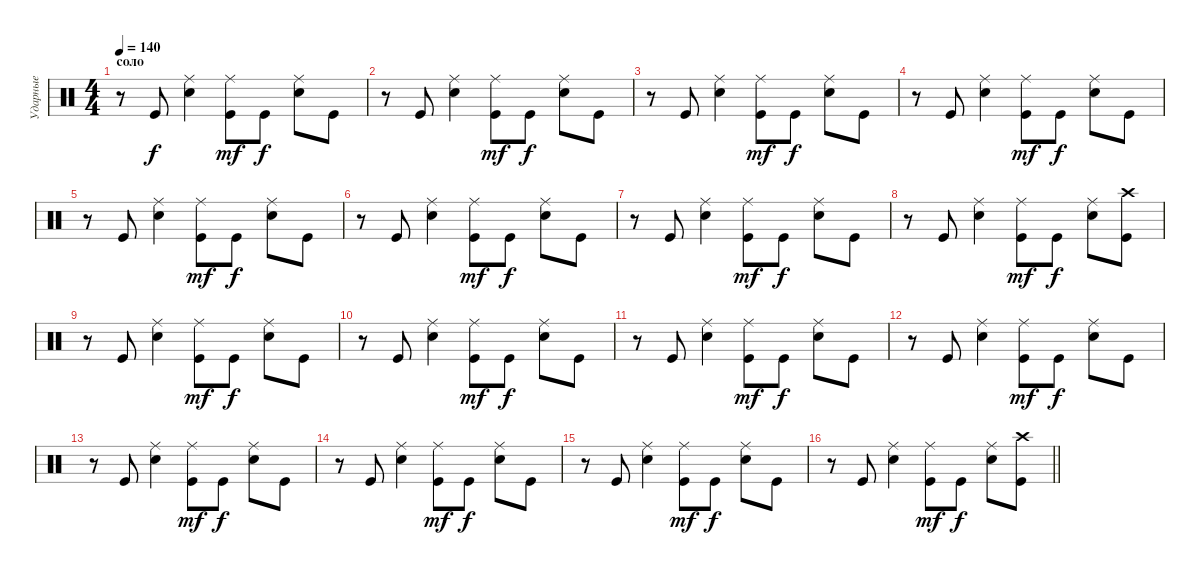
\track ("Ударные" "Ударные") {instrument percussion}
\staff {score}
\articulation defaults
\ts (4 4)
\section ("" "соло")
\tempo 140
\clef neutral
\ks c
r.8{dy f} "Kick (hit)".8 ("Electric Snare (hit)" "Ride (middle)").4 ("Kick (hit)" "Ride (middle)").8{dy mf} "Kick (hit)".8{dy f} ("Electric Snare (hit)" "Ride (middle)").8 "Kick (hit)".8 |
r.8 "Kick (hit)".8 ("Electric Snare (hit)" "Ride (middle)").4 ("Kick (hit)" "Ride (middle)").8{dy mf} "Kick (hit)".8{dy f} ("Electric Snare (hit)" "Ride (middle)").8 "Kick (hit)".8 |
r.8 "Kick (hit)".8 ("Electric Snare (hit)" "Ride (middle)").4 ("Kick (hit)" "Ride (middle)").8{dy mf} "Kick (hit)".8{dy f} ("Electric Snare (hit)" "Ride (middle)").8 "Kick (hit)".8 |
r.8 "Kick (hit)".8 ("Electric Snare (hit)" "Ride (middle)").4 ("Kick (hit)" "Ride (middle)").8{dy mf} "Kick (hit)".8{dy f} ("Electric Snare (hit)" "Ride (middle)").8 "Kick (hit)".8 |
r.8 "Kick (hit)".8 ("Electric Snare (hit)" "Ride (middle)").4 ("Kick (hit)" "Ride (middle)").8{dy mf} "Kick (hit)".8{dy f} ("Electric Snare (hit)" "Ride (middle)").8 "Kick (hit)".8 |
r.8 "Kick (hit)".8 ("Electric Snare (hit)" "Ride (middle)").4 ("Kick (hit)" "Ride (middle)").8{dy mf} "Kick (hit)".8{dy f} ("Electric Snare (hit)" "Ride (middle)").8 "Kick (hit)".8 |
r.8 "Kick (hit)".8 ("Electric Snare (hit)" "Ride (middle)").4 ("Kick (hit)" "Ride (middle)").8{dy mf} "Kick (hit)".8{dy f} ("Electric Snare (hit)" "Ride (middle)").8 "Kick (hit)".8 |
r.8 "Kick (hit)".8 ("Electric Snare (hit)" "Ride (middle)").4 ("Kick (hit)" "Ride (middle)").8{dy mf} "Kick (hit)".8{dy f} ("Electric Snare (hit)" "Ride (middle)").8 ("Kick (hit)" "Crash high (hit)").8 |
r.8 "Kick (hit)".8 ("Electric Snare (hit)" "Ride (middle)").4 ("Kick (hit)" "Ride (middle)").8{dy mf} "Kick (hit)".8{dy f} ("Electric Snare (hit)" "Ride (middle)").8 "Kick (hit)".8 |
r.8 "Kick (hit)".8 ("Electric Snare (hit)" "Ride (middle)").4 ("Kick (hit)" "Ride (middle)").8{dy mf} "Kick (hit)".8{dy f} ("Electric Snare (hit)" "Ride (middle)").8 "Kick (hit)".8 |
r.8 "Kick (hit)".8 ("Electric Snare (hit)" "Ride (middle)").4 ("Kick (hit)" "Ride (middle)").8{dy mf} "Kick (hit)".8{dy f} ("Electric Snare (hit)" "Ride (middle)").8 "Kick (hit)".8 |
r.8 "Kick (hit)".8 ("Electric Snare (hit)" "Ride (middle)").4 ("Kick (hit)" "Ride (middle)").8{dy mf} "Kick (hit)".8{dy f} ("Electric Snare (hit)" "Ride (middle)").8 "Kick (hit)".8 |
r.8 "Kick (hit)".8 ("Electric Snare (hit)" "Ride (middle)").4 ("Kick (hit)" "Ride (middle)").8{dy mf} "Kick (hit)".8{dy f} ("Electric Snare (hit)" "Ride (middle)").8 "Kick (hit)".8 |
r.8 "Kick (hit)".8 ("Electric Snare (hit)" "Ride (middle)").4 ("Kick (hit)" "Ride (middle)").8{dy mf} "Kick (hit)".8{dy f} ("Electric Snare (hit)" "Ride (middle)").8 "Kick (hit)".8 |
r.8 "Kick (hit)".8 ("Electric Snare (hit)" "Ride (middle)").4 ("Kick (hit)" "Ride (middle)").8{dy mf} "Kick (hit)".8{dy f} ("Electric Snare (hit)" "Ride (middle)").8 "Kick (hit)".8 |
\barLineRight lightlight
r.8 "Kick (hit)".8 ("Electric Snare (hit)" "Ride (middle)").4 ("Kick (hit)" "Ride (middle)").8{dy mf} "Kick (hit)".8{dy f} ("Electric Snare (hit)" "Ride (middle)").8 ("Kick (hit)" "Crash high (hit)").8
